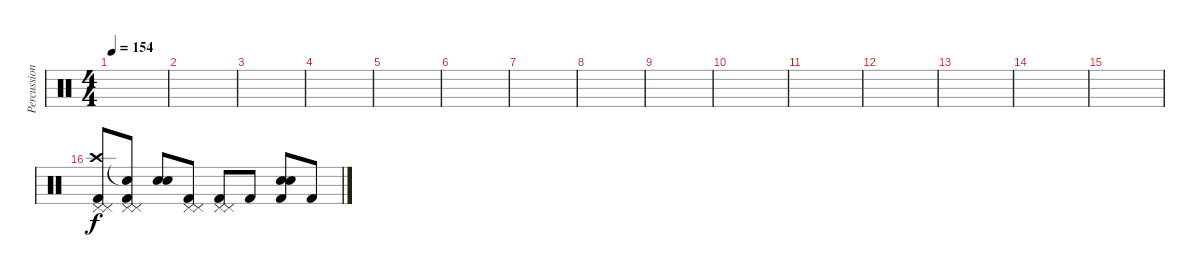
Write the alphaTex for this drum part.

\track ("Percussion" "Percussion") {instrument percussion}
\staff {score}
\articulation defaults
\ts (4 4)
\tempo 154
\clef neutral
\ks c
|
|
|
|
|
|
|
|
|
|
|
|
|
|
|
("Pedal Hi-Hat (hit)" "Pedal Hi-Hat (hit)" "Crash high (hit)" "Kick (hit) 2").8 ("Pedal Hi-Hat (hit)" "Pedal Hi-Hat (hit)" "Snare (hit)"{t} "Kick (hit) 2").8 ("Electric Snare (hit)" "Electric Snare (hit)").8 ("Pedal Hi-Hat (hit)" "Pedal Hi-Hat (hit)" "Kick (hit) 2").8 ("Pedal Hi-Hat (hit)" "Pedal Hi-Hat (hit)" "Kick (hit) 2").8 "Kick (hit) 2".8 ("Electric Snare (hit)" "Electric Snare (hit)" "Kick (hit) 2").8 "Kick (hit) 2".8
